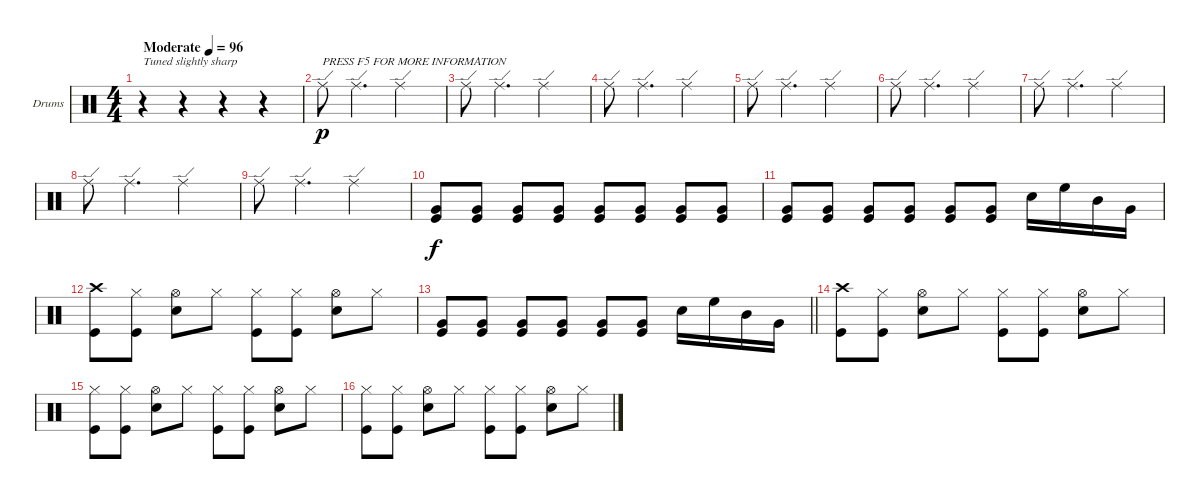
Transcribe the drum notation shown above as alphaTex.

\bracketExtendMode groupsimilarinstruments
\firstSystemTrackNameOrientation horizontal
\otherSystemsTrackNameOrientation horizontal
\track ("Drumkit" "Drums") {instrument percussion}
\staff {score}
\articulation defaults
\ts (4 4)
\beaming (8 2 2 2 2)
\tempo (96 "Moderate")
\clef neutral
\ks c
r.4{txt "Tuned slightly sharp" dy p} r.4 r.4 r.4 |
"Ride (edge)".8{txt "PRESS F5 FOR MORE INFORMATION"} "Ride (edge)".4{d} "Ride (edge)".2 |
"Ride (edge)".8 "Ride (edge)".4{d} "Ride (edge)".2 |
"Ride (edge)".8 "Ride (edge)".4{d} "Ride (edge)".2 |
"Ride (edge)".8 "Ride (edge)".4{d} "Ride (edge)".2 |
"Ride (edge)".8 "Ride (edge)".4{d} "Ride (edge)".2 |
"Ride (edge)".8 "Ride (edge)".4{d} "Ride (edge)".2 |
"Ride (edge)".8 "Ride (edge)".4{d} "Ride (edge)".2 |
"Ride (edge)".8 "Ride (edge)".4{d} "Ride (edge)".2 |
("Kick (hit)" "Very Low Tom (hit)").8{dy f} ("Kick (hit)" "Very Low Tom (hit)").8 ("Kick (hit)" "Very Low Tom (hit)").8 ("Kick (hit)" "Very Low Tom (hit)").8 ("Kick (hit)" "Very Low Tom (hit)").8 ("Kick (hit)" "Very Low Tom (hit)").8 ("Kick (hit)" "Very Low Tom (hit)").8 ("Kick (hit)" "Very Low Tom (hit)").8 |
("Kick (hit)" "Very Low Tom (hit)").8 ("Kick (hit)" "Very Low Tom (hit)").8 ("Kick (hit)" "Very Low Tom (hit)").8 ("Kick (hit)" "Very Low Tom (hit)").8 ("Kick (hit)" "Very Low Tom (hit)").8 ("Kick (hit)" "Very Low Tom (hit)").8 "Snare (hit) 2".16 "High Floor Tom (hit)".16 "Mid Tom (hit)".16 "Very Low Tom (hit)".16 |
("Crash high (hit)" "Kick (hit)").8 ("Hi-Hat (closed)" "Kick (hit)").8 ("Hi-Hat (open)" "Snare (hit) 2").8 "Hi-Hat (closed)".8 ("Hi-Hat (closed)" "Kick (hit)").8 ("Hi-Hat (closed)" "Kick (hit)").8 ("Hi-Hat (open)" "Snare (hit) 2").8 "Hi-Hat (closed)".8 |
\barLineRight lightlight
("Kick (hit)" "Very Low Tom (hit)").8 ("Kick (hit)" "Very Low Tom (hit)").8 ("Kick (hit)" "Very Low Tom (hit)").8 ("Kick (hit)" "Very Low Tom (hit)").8 ("Kick (hit)" "Very Low Tom (hit)").8 ("Kick (hit)" "Very Low Tom (hit)").8 "Snare (hit) 2".16 "High Floor Tom (hit)".16 "Mid Tom (hit)".16 "Very Low Tom (hit)".16 |
("Crash high (hit)" "Kick (hit)").8 ("Hi-Hat (closed)" "Kick (hit)").8 ("Hi-Hat (open)" "Snare (hit) 2").8 "Hi-Hat (closed)".8 ("Hi-Hat (closed)" "Kick (hit)").8 ("Hi-Hat (closed)" "Kick (hit)").8 ("Hi-Hat (open)" "Snare (hit) 2").8 "Hi-Hat (closed)".8 |
("Hi-Hat (closed)" "Kick (hit)").8 ("Hi-Hat (closed)" "Kick (hit)").8 ("Hi-Hat (open)" "Snare (hit) 2").8 "Hi-Hat (closed)".8 ("Hi-Hat (closed)" "Kick (hit)").8 ("Hi-Hat (closed)" "Kick (hit)").8 ("Hi-Hat (open)" "Snare (hit) 2").8 "Hi-Hat (closed)".8 |
("Hi-Hat (closed)" "Kick (hit)").8 ("Hi-Hat (closed)" "Kick (hit)").8 ("Hi-Hat (open)" "Snare (hit) 2").8 "Hi-Hat (closed)".8 ("Hi-Hat (closed)" "Kick (hit)").8 ("Hi-Hat (closed)" "Kick (hit)").8 ("Hi-Hat (open)" "Snare (hit) 2").8 "Hi-Hat (closed)".8
